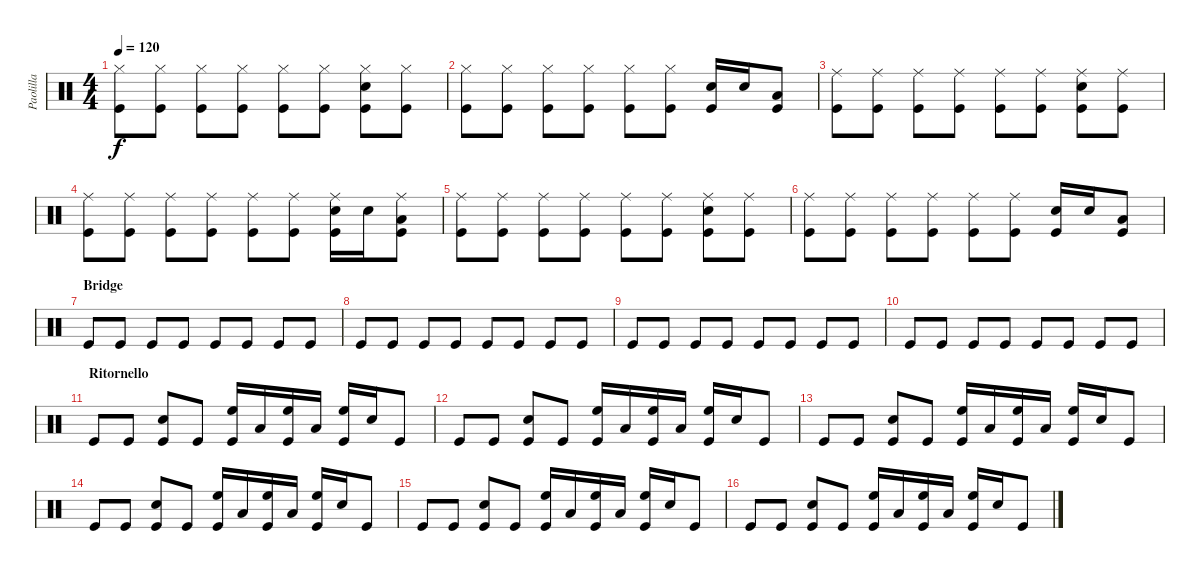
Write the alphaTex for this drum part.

\track ("Paolilla" "Paolilla") {instrument percussion}
\staff {score}
\articulation defaults
\ts (4 4)
\tempo 120
\clef neutral
\ks c
("Hi-Hat (closed)" "Kick (hit)").8{dy f} ("Hi-Hat (closed)" "Kick (hit)").8 ("Hi-Hat (closed)" "Kick (hit)").8 ("Hi-Hat (closed)" "Kick (hit)").8 ("Hi-Hat (closed)" "Kick (hit)").8 ("Hi-Hat (closed)" "Kick (hit)").8 ("Hi-Hat (closed)" "Snare (hit) 2" "Kick (hit)").8 ("Hi-Hat (closed)" "Kick (hit)").8 |
("Hi-Hat (closed)" "Kick (hit)").8 ("Hi-Hat (closed)" "Kick (hit)").8 ("Hi-Hat (closed)" "Kick (hit)").8 ("Hi-Hat (closed)" "Kick (hit)").8 ("Hi-Hat (closed)" "Kick (hit)").8 ("Hi-Hat (closed)" "Kick (hit)").8 ("Snare (hit) 2" "Kick (hit)").16 "Snare (hit) 2".16 ("Low Tom (hit)" "Kick (hit)").8 |
("Ride (middle)" "Kick (hit)").8 ("Ride (middle)" "Kick (hit)").8 ("Ride (middle)" "Kick (hit)").8 ("Ride (middle)" "Kick (hit)").8 ("Ride (middle)" "Kick (hit)").8 ("Ride (middle)" "Kick (hit)").8 ("Ride (middle)" "Snare (hit) 2" "Kick (hit)").8 ("Ride (middle)" "Kick (hit)").8 |
("Ride (middle)" "Kick (hit)").8 ("Ride (middle)" "Kick (hit)").8 ("Ride (middle)" "Kick (hit)").8 ("Ride (middle)" "Kick (hit)").8 ("Ride (middle)" "Kick (hit)").8 ("Ride (middle)" "Kick (hit)").8 ("Ride (middle)" "Snare (hit) 2" "Kick (hit)").16 "Snare (hit) 2".16 ("Ride (middle)" "Low Tom (hit)" "Kick (hit)").8 |
("Ride (middle)" "Kick (hit)").8 ("Ride (middle)" "Kick (hit)").8 ("Ride (middle)" "Kick (hit)").8 ("Ride (middle)" "Kick (hit)").8 ("Ride (middle)" "Kick (hit)").8 ("Ride (middle)" "Kick (hit)").8 ("Ride (middle)" "Snare (hit) 2" "Kick (hit)").8 ("Ride (middle)" "Kick (hit)").8 |
("Ride (middle)" "Kick (hit)").8 ("Ride (middle)" "Kick (hit)").8 ("Ride (middle)" "Kick (hit)").8 ("Ride (middle)" "Kick (hit)").8 ("Ride (middle)" "Kick (hit)").8 ("Ride (middle)" "Kick (hit)").8 ("Snare (hit) 2" "Kick (hit)").16 "Snare (hit) 2".16 ("Low Tom (hit)" "Kick (hit)").8 |
\section ("" "Bridge")
"Kick (hit)".8 "Kick (hit)".8 "Kick (hit)".8 "Kick (hit)".8 "Kick (hit)".8 "Kick (hit)".8 "Kick (hit)".8 "Kick (hit)".8 |
"Kick (hit)".8 "Kick (hit)".8 "Kick (hit)".8 "Kick (hit)".8 "Kick (hit)".8 "Kick (hit)".8 "Kick (hit)".8 "Kick (hit)".8 |
"Kick (hit)".8 "Kick (hit)".8 "Kick (hit)".8 "Kick (hit)".8 "Kick (hit)".8 "Kick (hit)".8 "Kick (hit)".8 "Kick (hit)".8 |
"Kick (hit)".8 "Kick (hit)".8 "Kick (hit)".8 "Kick (hit)".8 "Kick (hit)".8 "Kick (hit)".8 "Kick (hit)".8 "Kick (hit)".8 |
\section ("" "Ritornello")
"Kick (hit)".8 "Kick (hit)".8 ("Kick (hit)" "Snare (hit) 2").8 "Kick (hit)".8 ("High Floor Tom (hit)" "Kick (hit)").16 "Low Tom (hit)".16 ("High Floor Tom (hit)" "Kick (hit)").16 "Low Tom (hit)".16 ("High Floor Tom (hit)" "Kick (hit)").16 "Snare (hit) 2".16 "Kick (hit)".8 |
"Kick (hit)".8 "Kick (hit)".8 ("Kick (hit)" "Snare (hit) 2").8 "Kick (hit)".8 ("High Floor Tom (hit)" "Kick (hit)").16 "Low Tom (hit)".16 ("High Floor Tom (hit)" "Kick (hit)").16 "Low Tom (hit)".16 ("High Floor Tom (hit)" "Kick (hit)").16 "Snare (hit) 2".16 "Kick (hit)".8 |
"Kick (hit)".8 "Kick (hit)".8 ("Kick (hit)" "Snare (hit) 2").8 "Kick (hit)".8 ("High Floor Tom (hit)" "Kick (hit)").16 "Low Tom (hit)".16 ("High Floor Tom (hit)" "Kick (hit)").16 "Low Tom (hit)".16 ("High Floor Tom (hit)" "Kick (hit)").16 "Snare (hit) 2".16 "Kick (hit)".8 |
"Kick (hit)".8 "Kick (hit)".8 ("Kick (hit)" "Snare (hit) 2").8 "Kick (hit)".8 ("High Floor Tom (hit)" "Kick (hit)").16 "Low Tom (hit)".16 ("High Floor Tom (hit)" "Kick (hit)").16 "Low Tom (hit)".16 ("High Floor Tom (hit)" "Kick (hit)").16 "Snare (hit) 2".16 "Kick (hit)".8 |
"Kick (hit)".8 "Kick (hit)".8 ("Kick (hit)" "Snare (hit) 2").8 "Kick (hit)".8 ("High Floor Tom (hit)" "Kick (hit)").16 "Low Tom (hit)".16 ("High Floor Tom (hit)" "Kick (hit)").16 "Low Tom (hit)".16 ("High Floor Tom (hit)" "Kick (hit)").16 "Snare (hit) 2".16 "Kick (hit)".8 |
"Kick (hit)".8 "Kick (hit)".8 ("Kick (hit)" "Snare (hit) 2").8 "Kick (hit)".8 ("High Floor Tom (hit)" "Kick (hit)").16 "Low Tom (hit)".16 ("High Floor Tom (hit)" "Kick (hit)").16 "Low Tom (hit)".16 ("High Floor Tom (hit)" "Kick (hit)").16 "Snare (hit) 2".16 "Kick (hit)".8
